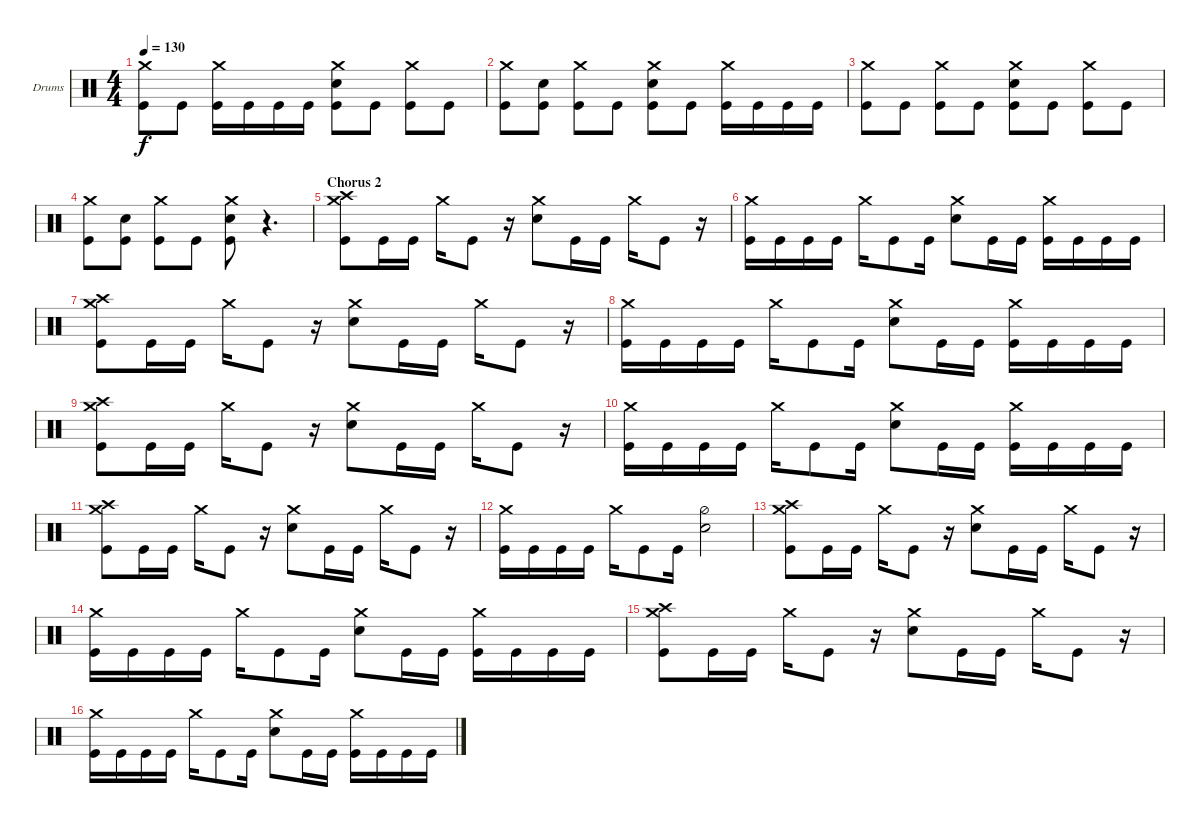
\bracketExtendMode groupsimilarinstruments
\firstSystemTrackNameOrientation horizontal
\otherSystemsTrackNameOrientation horizontal
\track ("Drumkit" "Drums") {instrument percussion}
\staff {score}
\articulation defaults
\ts (4 4)
\tempo 130
\clef neutral
\ks c
("Crash medium (hit)" "Kick (hit)").8{dy f} "Kick (hit)".8 ("Kick (hit)" "Crash medium (hit)").16 "Kick (hit)".16 "Kick (hit)".16 "Kick (hit)".16 ("Snare (hit) 2" "Kick (hit)" "Crash medium (hit)").8 "Kick (hit)".8 ("Kick (hit)" "Crash medium (hit)").8 "Kick (hit)".8 |
("Kick (hit)" "Crash medium (hit)").8 ("Kick (hit)" "Snare (hit) 2").8 ("Kick (hit)" "Crash medium (hit)").8 "Kick (hit)".8 ("Kick (hit)" "Crash medium (hit)" "Snare (hit) 2").8 "Kick (hit)".8 ("Kick (hit)" "Crash medium (hit)").16 "Kick (hit)".16 "Kick (hit)".16 "Kick (hit)".16 |
("Kick (hit)" "Crash medium (hit)").8 "Kick (hit)".8 ("Kick (hit)" "Crash medium (hit)").8 "Kick (hit)".8 ("Kick (hit)" "Snare (hit) 2" "Crash medium (hit)").8 "Kick (hit)".8 ("Kick (hit)" "Crash medium (hit)").8 "Kick (hit)".8 |
("Kick (hit)" "Crash medium (hit)").8 ("Kick (hit)" "Snare (hit) 2").8 ("Kick (hit)" "Crash medium (hit)").8 "Kick (hit)".8 ("Kick (hit)" "Snare (hit) 2" "Crash medium (hit)").8 r.4{d} |
\section ("" "Chorus 2")
("Kick (hit)" "Crash high (hit)" "Crash medium (hit)").8 "Kick (hit)".16 "Kick (hit)".16 "Crash medium (hit)".16 "Kick (hit)".8 r.16 ("Crash medium (hit)" "Snare (hit) 2").8 "Kick (hit)".16 "Kick (hit)".16 "Crash medium (hit)".16 "Kick (hit)".8 r.16 |
("Kick (hit)" "Crash medium (hit)").16 "Kick (hit)".16 "Kick (hit)".16 "Kick (hit)".16 "Crash medium (hit)".16 "Kick (hit)".8 "Kick (hit)".16 ("Snare (hit) 2" "Crash medium (hit)").8 "Kick (hit)".16 "Kick (hit)".16 ("Kick (hit)" "Crash medium (hit)").16 "Kick (hit)".16 "Kick (hit)".16 "Kick (hit)".16 |
("Kick (hit)" "Crash high (hit)" "Crash medium (hit)").8 "Kick (hit)".16 "Kick (hit)".16 "Crash medium (hit)".16 "Kick (hit)".8 r.16 ("Crash medium (hit)" "Snare (hit) 2").8 "Kick (hit)".16 "Kick (hit)".16 "Crash medium (hit)".16 "Kick (hit)".8 r.16 |
("Kick (hit)" "Crash medium (hit)").16 "Kick (hit)".16 "Kick (hit)".16 "Kick (hit)".16 "Crash medium (hit)".16 "Kick (hit)".8 "Kick (hit)".16 ("Snare (hit) 2" "Crash medium (hit)").8 "Kick (hit)".16 "Kick (hit)".16 ("Kick (hit)" "Crash medium (hit)").16 "Kick (hit)".16 "Kick (hit)".16 "Kick (hit)".16 |
("Kick (hit)" "Crash high (hit)" "Crash medium (hit)").8 "Kick (hit)".16 "Kick (hit)".16 "Crash medium (hit)".16 "Kick (hit)".8 r.16 ("Crash medium (hit)" "Snare (hit) 2").8 "Kick (hit)".16 "Kick (hit)".16 "Crash medium (hit)".16 "Kick (hit)".8 r.16 |
("Kick (hit)" "Crash medium (hit)").16 "Kick (hit)".16 "Kick (hit)".16 "Kick (hit)".16 "Crash medium (hit)".16 "Kick (hit)".8 "Kick (hit)".16 ("Snare (hit) 2" "Crash medium (hit)").8 "Kick (hit)".16 "Kick (hit)".16 ("Kick (hit)" "Crash medium (hit)").16 "Kick (hit)".16 "Kick (hit)".16 "Kick (hit)".16 |
("Kick (hit)" "Crash high (hit)" "Crash medium (hit)").8 "Kick (hit)".16 "Kick (hit)".16 "Crash medium (hit)".16 "Kick (hit)".8 r.16 ("Crash medium (hit)" "Snare (hit) 2").8 "Kick (hit)".16 "Kick (hit)".16 "Crash medium (hit)".16 "Kick (hit)".8 r.16 |
("Kick (hit)" "Crash medium (hit)").16 "Kick (hit)".16 "Kick (hit)".16 "Kick (hit)".16 "Crash medium (hit)".16 "Kick (hit)".8 "Kick (hit)".16 ("Snare (hit) 2" "Hi-Hat (half)").2 |
("Kick (hit)" "Crash high (hit)" "Crash medium (hit)").8 "Kick (hit)".16 "Kick (hit)".16 "Crash medium (hit)".16 "Kick (hit)".8 r.16 ("Crash medium (hit)" "Snare (hit) 2").8 "Kick (hit)".16 "Kick (hit)".16 "Crash medium (hit)".16 "Kick (hit)".8 r.16 |
("Kick (hit)" "Crash medium (hit)").16 "Kick (hit)".16 "Kick (hit)".16 "Kick (hit)".16 "Crash medium (hit)".16 "Kick (hit)".8 "Kick (hit)".16 ("Snare (hit) 2" "Crash medium (hit)").8 "Kick (hit)".16 "Kick (hit)".16 ("Kick (hit)" "Crash medium (hit)").16 "Kick (hit)".16 "Kick (hit)".16 "Kick (hit)".16 |
("Kick (hit)" "Crash high (hit)" "Crash medium (hit)").8 "Kick (hit)".16 "Kick (hit)".16 "Crash medium (hit)".16 "Kick (hit)".8 r.16 ("Crash medium (hit)" "Snare (hit) 2").8 "Kick (hit)".16 "Kick (hit)".16 "Crash medium (hit)".16 "Kick (hit)".8 r.16 |
("Kick (hit)" "Crash medium (hit)").16 "Kick (hit)".16 "Kick (hit)".16 "Kick (hit)".16 "Crash medium (hit)".16 "Kick (hit)".8 "Kick (hit)".16 ("Snare (hit) 2" "Crash medium (hit)").8 "Kick (hit)".16 "Kick (hit)".16 ("Kick (hit)" "Crash medium (hit)").16 "Kick (hit)".16 "Kick (hit)".16 "Kick (hit)".16
